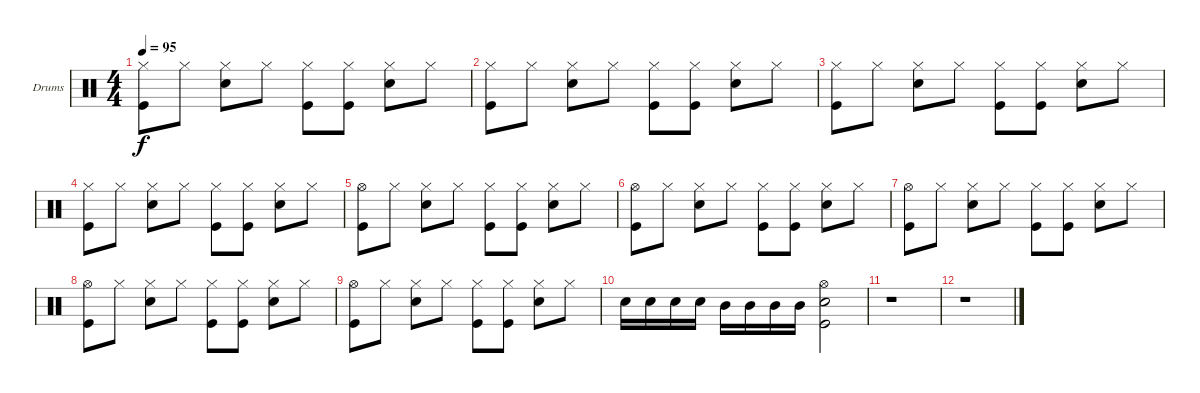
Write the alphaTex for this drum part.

\defaultSystemsLayout 4
\bracketExtendMode groupsimilarinstruments
\firstSystemTrackNameOrientation horizontal
\otherSystemsTrackNameOrientation horizontal
\track ("Drumkit" "Drums") {instrument percussion}
\staff {score}
\articulation defaults
\ts (4 4)
\tempo 95
\clef neutral
\ks c
("Kick (hit)" "Hi-Hat (closed)").8{dy f} "Hi-Hat (closed)".8 ("Hi-Hat (closed)" "Snare (hit) 2").8 "Hi-Hat (closed)".8 ("Hi-Hat (closed)" "Kick (hit)").8 ("Hi-Hat (closed)" "Kick (hit)").8 ("Hi-Hat (closed)" "Snare (hit) 2").8 "Hi-Hat (closed)".8 |
("Kick (hit)" "Hi-Hat (closed)").8 "Hi-Hat (closed)".8 ("Hi-Hat (closed)" "Snare (hit) 2").8 "Hi-Hat (closed)".8 ("Hi-Hat (closed)" "Kick (hit)").8 ("Hi-Hat (closed)" "Kick (hit)").8 ("Hi-Hat (closed)" "Snare (hit) 2").8 "Hi-Hat (closed)".8 |
("Kick (hit)" "Hi-Hat (closed)").8 "Hi-Hat (closed)".8 ("Hi-Hat (closed)" "Snare (hit) 2").8 "Hi-Hat (closed)".8 ("Hi-Hat (closed)" "Kick (hit)").8 ("Hi-Hat (closed)" "Kick (hit)").8 ("Hi-Hat (closed)" "Snare (hit) 2").8 "Hi-Hat (closed)".8 |
("Kick (hit)" "Hi-Hat (closed)").8 "Hi-Hat (closed)".8 ("Hi-Hat (closed)" "Snare (hit) 2").8 "Hi-Hat (closed)".8 ("Hi-Hat (closed)" "Kick (hit)").8 ("Hi-Hat (closed)" "Kick (hit)").8 ("Hi-Hat (closed)" "Snare (hit) 2").8 "Hi-Hat (closed)".8 |
("Kick (hit)" "Hi-Hat (open)").8 "Hi-Hat (closed)".8 ("Hi-Hat (closed)" "Snare (hit) 2").8 "Hi-Hat (closed)".8 ("Hi-Hat (closed)" "Kick (hit)").8 ("Hi-Hat (closed)" "Kick (hit)").8 ("Hi-Hat (closed)" "Snare (hit) 2").8 "Hi-Hat (closed)".8 |
("Kick (hit)" "Hi-Hat (open)").8 "Hi-Hat (closed)".8 ("Hi-Hat (closed)" "Snare (hit) 2").8 "Hi-Hat (closed)".8 ("Hi-Hat (closed)" "Kick (hit)").8 ("Hi-Hat (closed)" "Kick (hit)").8 ("Hi-Hat (closed)" "Snare (hit) 2").8 "Hi-Hat (closed)".8 |
("Kick (hit)" "Hi-Hat (open)").8 "Hi-Hat (closed)".8 ("Hi-Hat (closed)" "Snare (hit) 2").8 "Hi-Hat (closed)".8 ("Hi-Hat (closed)" "Kick (hit)").8 ("Hi-Hat (closed)" "Kick (hit)").8 ("Hi-Hat (closed)" "Snare (hit) 2").8 "Hi-Hat (closed)".8 |
("Kick (hit)" "Hi-Hat (open)").8 "Hi-Hat (closed)".8 ("Hi-Hat (closed)" "Snare (hit) 2").8 "Hi-Hat (closed)".8 ("Hi-Hat (closed)" "Kick (hit)").8 ("Hi-Hat (closed)" "Kick (hit)").8 ("Hi-Hat (closed)" "Snare (hit) 2").8 "Hi-Hat (closed)".8 |
("Kick (hit)" "Hi-Hat (open)").8 "Hi-Hat (closed)".8 ("Hi-Hat (closed)" "Snare (hit) 2").8 "Hi-Hat (closed)".8 ("Hi-Hat (closed)" "Kick (hit)").8 ("Hi-Hat (closed)" "Kick (hit)").8 ("Hi-Hat (closed)" "Snare (hit) 2").8 "Hi-Hat (closed)".8 |
"Snare (hit) 2".16 "Snare (hit) 2".16 "Snare (hit) 2".16 "Snare (hit) 2".16 "Mid Tom (hit)".16 "Mid Tom (hit)".16 "Mid Tom (hit)".16 "Mid Tom (hit)".16 ("Hi-Hat (open)" "Snare (hit) 2" "Kick (hit)").2 |
r.1 |
r.1
